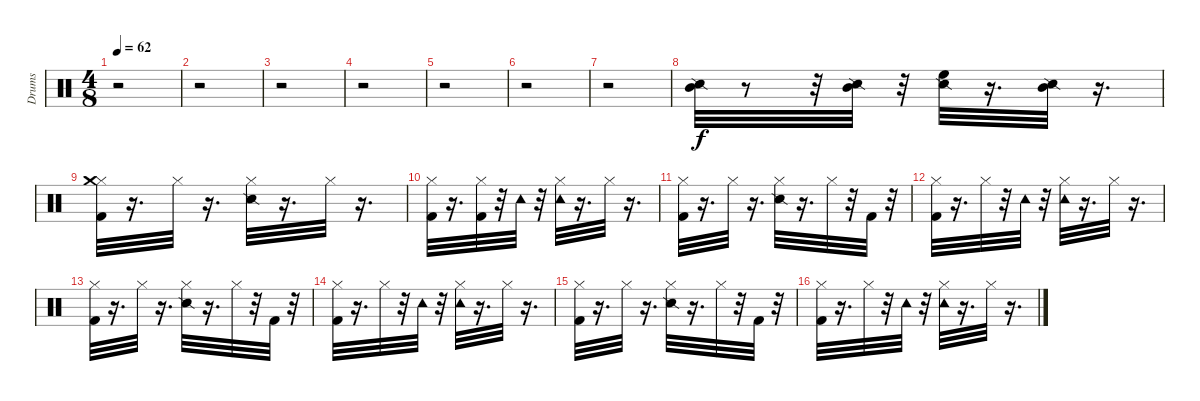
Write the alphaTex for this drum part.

\track ("Drums" "Drums") {instrument percussion}
\staff {score}
\articulation defaults
\ts (4 8)
\tempo 62
\clef neutral
\ks c
r.2{dy f} |
r.2 |
r.2 |
r.2 |
r.2 |
r.2 |
r.2 |
("Mid Tom (hit)" "Snare (side stick) 2").32 r.8 r.32 ("Mid Tom (hit)" "Snare (side stick) 2").32 r.32 ("High Floor Tom (hit)" "Snare (side stick) 2").32 r.16{d} ("Mid Tom (hit)" "Snare (side stick) 2").32 r.16{d} |
("Kick (hit) 2" "Hi-Hat (closed)" "Crash medium (hit)").32 r.16{d} "Hi-Hat (closed)".32 r.16{d} ("Snare (side stick) 2" "Hi-Hat (closed)").32 r.16{d} "Hi-Hat (closed)".32 r.16{d} |
("Kick (hit) 2" "Hi-Hat (closed)").32 r.16{d} ("Kick (hit) 2" "Hi-Hat (closed)").32 r.32 "Tambourine (hit)".32 r.32 ("Hi-Hat (closed)" "Tambourine (hit)").32 r.16{d} "Hi-Hat (closed)".32 r.16{d} |
("Kick (hit) 2" "Hi-Hat (closed)").32 r.16{d} "Hi-Hat (closed)".32 r.16{d} ("Snare (side stick) 2" "Hi-Hat (closed)").32 r.16{d} "Hi-Hat (closed)".32 r.32 "Kick (hit) 2".32 r.32 |
("Kick (hit) 2" "Hi-Hat (closed)").32 r.16{d} "Hi-Hat (closed)".32 r.32 "Tambourine (hit)".32 r.32 ("Hi-Hat (closed)" "Tambourine (hit)").32 r.16{d} "Hi-Hat (closed)".32 r.16{d} |
("Kick (hit) 2" "Hi-Hat (closed)").32 r.16{d} "Hi-Hat (closed)".32 r.16{d} ("Snare (side stick) 2" "Hi-Hat (closed)").32 r.16{d} "Hi-Hat (closed)".32 r.32 "Kick (hit) 2".32 r.32 |
("Kick (hit) 2" "Hi-Hat (closed)").32 r.16{d} "Hi-Hat (closed)".32 r.32 "Tambourine (hit)".32 r.32 ("Hi-Hat (closed)" "Tambourine (hit)").32 r.16{d} "Hi-Hat (closed)".32 r.16{d} |
("Kick (hit) 2" "Hi-Hat (closed)").32 r.16{d} "Hi-Hat (closed)".32 r.16{d} ("Snare (side stick) 2" "Hi-Hat (closed)").32 r.16{d} "Hi-Hat (closed)".32 r.32 "Kick (hit) 2".32 r.32 |
("Kick (hit) 2" "Hi-Hat (closed)").32 r.16{d} "Hi-Hat (closed)".32 r.32 "Tambourine (hit)".32 r.32 ("Hi-Hat (closed)" "Tambourine (hit)").32 r.16{d} "Hi-Hat (closed)".32 r.16{d}
